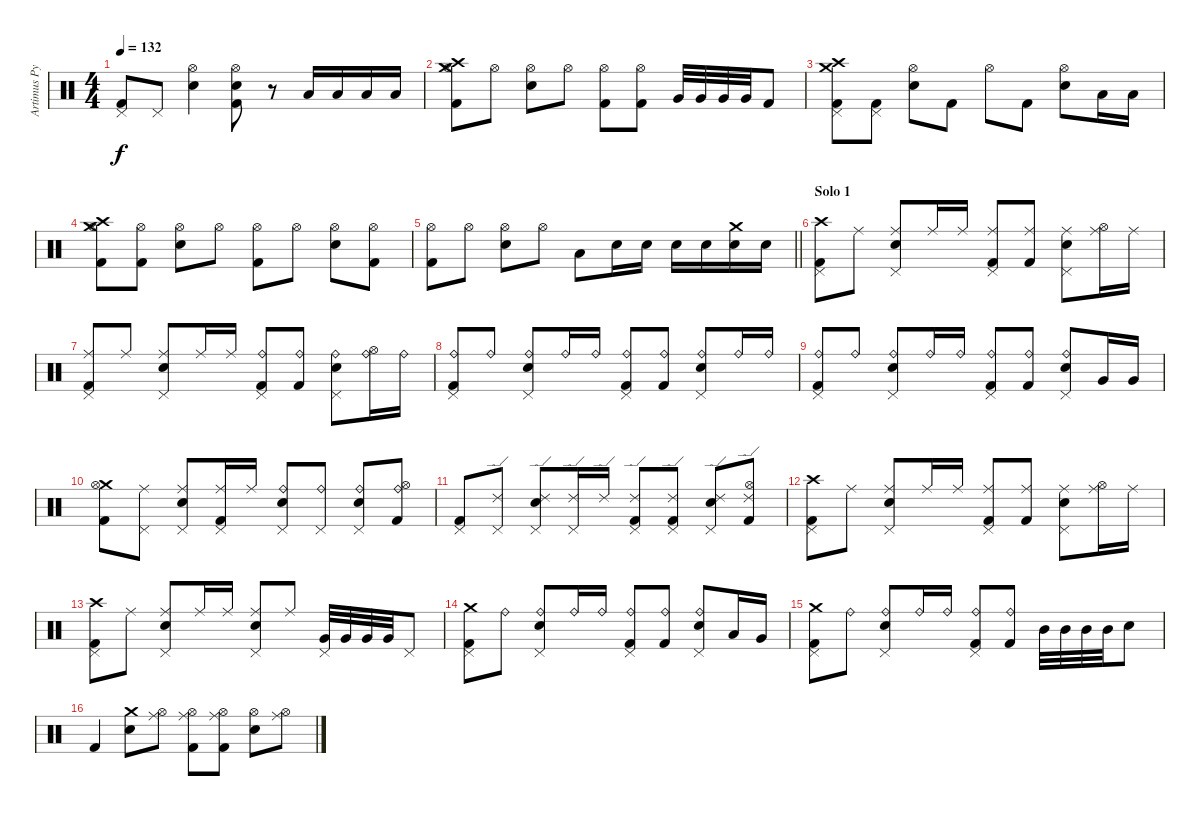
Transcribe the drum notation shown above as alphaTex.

\track ("Artimus Pyle" "Artimus Py") {instrument percussion}
\staff {score}
\articulation defaults
\ts (4 4)
\tempo 132
\clef neutral
\ks c
("Pedal Hi-Hat (hit)" "Kick (hit) 2").8{dy f} "Pedal Hi-Hat (hit)".8 ("Snare (hit) 2" "Hi-Hat (open)").4 ("Snare (hit) 2" "Hi-Hat (open)" "Kick (hit) 2").8 r.8 "Low Floor Tom (hit)".16 "Low Floor Tom (hit)".16 "Low Floor Tom (hit)".16 "Low Floor Tom (hit)".16 |
("Crash medium (hit)" "Crash high (hit)" "Hi-Hat (open)" "Kick (hit) 2").8 "Hi-Hat (open)".8 ("Snare (hit) 2" "Hi-Hat (open)").8 "Hi-Hat (open)".8 ("Hi-Hat (open)" "Kick (hit) 2").8 ("Hi-Hat (open)" "Kick (hit) 2").8 "Very Low Tom (hit)".32 "Very Low Tom (hit)".32 "Very Low Tom (hit)".32 "Very Low Tom (hit)".32 "Kick (hit) 2".8 |
("Crash high (hit)" "Crash medium (hit)" "Pedal Hi-Hat (hit)" "Kick (hit) 2").8 ("Pedal Hi-Hat (hit)" "Kick (hit) 2").8 ("Snare (hit) 2" "Hi-Hat (open)").8 "Kick (hit) 2".8 "Hi-Hat (open)".8 "Kick (hit) 2".8 ("Snare (hit) 2" "Hi-Hat (open)").8 "Low Tom (hit)".16 "Low Tom (hit)".16 |
("Crash high (hit)" "Crash medium (hit)" "Hi-Hat (open)" "Kick (hit) 2").8 ("Hi-Hat (open)" "Kick (hit) 2").8 ("Snare (hit) 2" "Hi-Hat (open)").8 "Hi-Hat (open)".8 ("Hi-Hat (open)" "Kick (hit) 2").8 "Hi-Hat (open)".8 ("Snare (hit) 2" "Hi-Hat (open)").8 ("Hi-Hat (open)" "Kick (hit) 2").8 |
\barLineRight lightlight
("Hi-Hat (open)" "Kick (hit) 2").8 "Hi-Hat (open)".8 ("Snare (hit) 2" "Hi-Hat (open)").8 "Hi-Hat (open)".8 "Low Tom (hit)".8 "Snare (hit) 2".16 "Snare (hit) 2".16 "Snare (hit) 2".16 "Snare (hit) 2".16 ("Crash medium (hit)" "Snare (hit) 2").16 "Snare (hit) 2".16 |
\section ("" "Solo 1")
("Crash high (hit)" "Pedal Hi-Hat (hit)" "Kick (hit) 2").8 "Ride (middle)".8 ("Ride (middle)" "Snare (hit) 2" "Pedal Hi-Hat (hit)").8 "Ride (middle)".16 "Ride (middle)".16 ("Ride (middle)" "Pedal Hi-Hat (hit)" "Kick (hit) 2").8 ("Ride (middle)" "Kick (hit) 2").8 ("Ride (middle)" "Snare (hit) 2" "Pedal Hi-Hat (hit)").8 ("Ride (middle)" "Hi-Hat (open)").16 "Ride (middle)".16 |
("Ride (middle)" "Pedal Hi-Hat (hit)" "Kick (hit) 2").8 "Ride (middle)".8 ("Ride (middle)" "Snare (hit) 2" "Pedal Hi-Hat (hit)").8 "Ride (middle)".16 "Ride (middle)".16 ("Ride (bell)" "Pedal Hi-Hat (hit)" "Kick (hit) 2").8 ("Ride (bell)" "Kick (hit) 2").8 ("Ride (bell)" "Snare (hit) 2" "Pedal Hi-Hat (hit)").8 ("Ride (bell)" "Hi-Hat (open)").16 "Ride (bell)".16 |
("Ride (bell)" "Pedal Hi-Hat (hit)" "Kick (hit) 2").8 "Ride (bell)".8 ("Ride (bell)" "Snare (hit) 2" "Pedal Hi-Hat (hit)").8 "Ride (bell)".16 "Ride (bell)".16 ("Ride (bell)" "Pedal Hi-Hat (hit)" "Kick (hit) 2").8 ("Ride (bell)" "Kick (hit) 2").8 ("Ride (bell)" "Snare (hit) 2" "Pedal Hi-Hat (hit)").8 "Ride (bell)".16 "Ride (bell)".16 |
("Ride (bell)" "Pedal Hi-Hat (hit)" "Kick (hit) 2").8 "Ride (bell)".8 ("Ride (bell)" "Snare (hit) 2" "Pedal Hi-Hat (hit)").8 "Ride (bell)".16 "Ride (bell)".16 ("Ride (bell)" "Pedal Hi-Hat (hit)" "Kick (hit) 2").8 ("Ride (bell)" "Kick (hit) 2").8 ("Ride (bell)" "Snare (hit) 2" "Pedal Hi-Hat (hit)").8 "Very Low Tom (hit)".16 "Very Low Tom (hit)".16 |
("Crash medium (hit)" "Hi-Hat (open)" "Kick (hit) 2").8 ("Ride (middle)" "Pedal Hi-Hat (hit)").8 ("Ride (middle)" "Snare (hit) 2" "Pedal Hi-Hat (hit)").8 ("Ride (middle)" "Pedal Hi-Hat (hit)" "Kick (hit) 2").16 "Ride (middle)".16 ("Ride (bell)" "Snare (hit) 2" "Pedal Hi-Hat (hit)").8 ("Ride (bell)" "Pedal Hi-Hat (hit)").8 ("Ride (bell)" "Snare (hit) 2" "Pedal Hi-Hat (hit)").8 ("Ride (bell)" "Hi-Hat (open)" "Kick (hit) 2").8 |
("Pedal Hi-Hat (hit)" "Kick (hit) 2").8 ("Ride (edge) 2" "Pedal Hi-Hat (hit)").8 ("Ride (edge) 2" "Snare (hit) 2" "Pedal Hi-Hat (hit)").8 ("Ride (edge) 2" "Pedal Hi-Hat (hit)").16 "Ride (edge) 2".16 ("Ride (edge) 2" "Pedal Hi-Hat (hit)" "Kick (hit) 2").8 ("Ride (edge) 2" "Pedal Hi-Hat (hit)" "Kick (hit) 2").8 ("Ride (edge) 2" "Snare (hit) 2" "Pedal Hi-Hat (hit)").8 ("Ride (edge) 2" "Hi-Hat (open)" "Kick (hit) 2").8 |
("Crash high (hit)" "Pedal Hi-Hat (hit)" "Kick (hit) 2").8 "Ride (middle)".8 ("Ride (middle)" "Snare (hit) 2" "Pedal Hi-Hat (hit)").8 "Ride (middle)".16 "Ride (middle)".16 ("Ride (middle)" "Pedal Hi-Hat (hit)" "Kick (hit) 2").8 ("Ride (middle)" "Kick (hit) 2").8 ("Ride (middle)" "Snare (hit) 2" "Pedal Hi-Hat (hit)").8 ("Ride (middle)" "Hi-Hat (open)").16 "Ride (middle)".16 |
("Crash high (hit)" "Pedal Hi-Hat (hit)" "Kick (hit) 2").8 "Ride (middle)".8 ("Ride (middle)" "Snare (hit) 2" "Pedal Hi-Hat (hit)").8 "Ride (middle)".16 "Ride (middle)".16 ("Ride (middle)" "Snare (hit) 2" "Pedal Hi-Hat (hit)").8 "Ride (middle)".8 ("Very Low Tom (hit)" "Pedal Hi-Hat (hit)").32 "Very Low Tom (hit)".32 "Very Low Tom (hit)".32 "Very Low Tom (hit)".32 "Pedal Hi-Hat (hit)".8 |
("Crash medium (hit)" "Pedal Hi-Hat (hit)" "Kick (hit) 2").8 "Ride (bell)".8 ("Ride (bell)" "Snare (hit) 2" "Pedal Hi-Hat (hit)").8 "Ride (bell)".16 "Ride (bell)".16 ("Ride (bell)" "Pedal Hi-Hat (hit)" "Kick (hit) 2").8 ("Ride (bell)" "Kick (hit) 2").8 ("Ride (bell)" "Snare (hit) 2" "Pedal Hi-Hat (hit)").8 "Low Tom (hit)".16 "Very Low Tom (hit)".16 |
("Crash medium (hit)" "Pedal Hi-Hat (hit)" "Kick (hit) 2").8 "Ride (bell)".8 ("Ride (bell)" "Snare (hit) 2" "Pedal Hi-Hat (hit)").8 "Ride (bell)".16 "Ride (bell)".16 ("Ride (bell)" "Pedal Hi-Hat (hit)" "Kick (hit) 2").8 ("Ride (bell)" "Kick (hit) 2").8 "Mid Tom (hit)".32 "Mid Tom (hit)".32 "Mid Tom (hit)".32 "Mid Tom (hit)".32 "Snare (hit) 2".8 |
"Kick (hit) 2".4 ("Crash medium (hit)" "Snare (hit) 2").8 ("Ride (middle)" "Hi-Hat (open)").8 ("Ride (middle)" "Hi-Hat (open)" "Kick (hit) 2").8 ("Ride (middle)" "Hi-Hat (open)" "Kick (hit) 2").8 ("Snare (hit) 2" "Hi-Hat (open)").8 ("Ride (middle)" "Hi-Hat (open)").8
